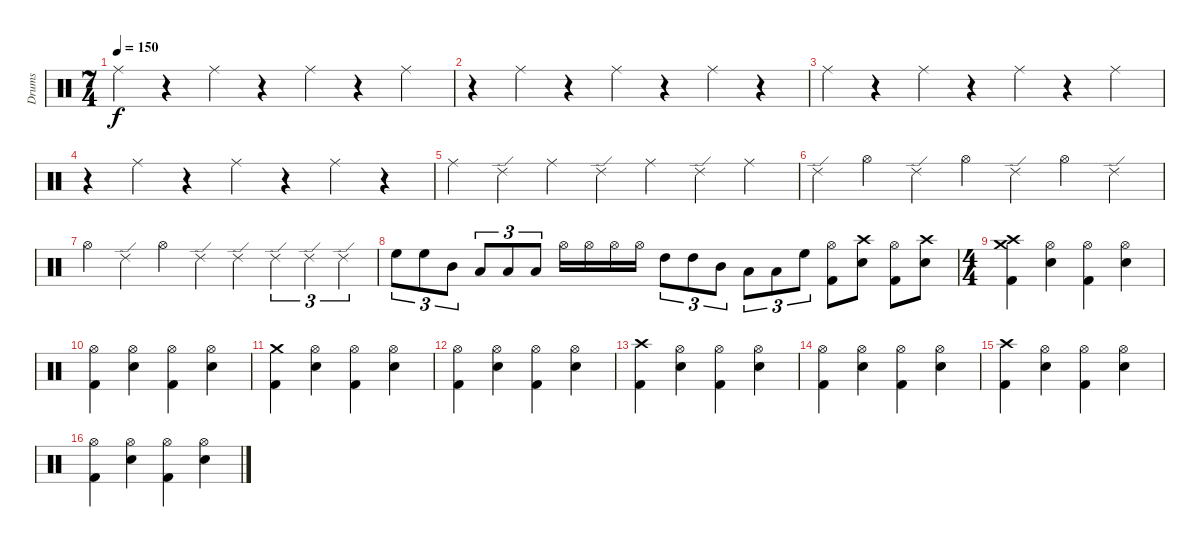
\track ("Drums" "Drums") {instrument percussion}
\staff {score}
\articulation defaults
\ts (7 4)
\tempo 150
\clef neutral
\ks c "Ride (middle)".4{dy f}
r.4 "Ride (middle)".4 r.4 "Ride (middle)".4 r.4 "Ride (middle)".4 |
r.4 "Ride (middle)".4 r.4 "Ride (middle)".4 r.4 "Ride (middle)".4 r.4 |
"Ride (middle)".4 r.4 "Ride (middle)".4 r.4 "Ride (middle)".4 r.4 "Ride (middle)".4 |
r.4 "Ride (middle)".4 r.4 "Ride (middle)".4 r.4 "Ride (middle)".4 r.4 |
"Ride (middle)".4 "Ride (edge) 2".4 "Ride (middle)".4 "Ride (edge) 2".4 "Ride (middle)".4 "Ride (edge) 2".4 "Ride (middle)".4 |
"Ride (edge) 2".4 "Hi-Hat (open)".4 "Ride (edge) 2".4 "Hi-Hat (open)".4 "Ride (edge) 2".4 "Hi-Hat (open)".4 "Ride (edge) 2".4 |
"Hi-Hat (open)".4 "Ride (edge) 2".4 "Hi-Hat (open)".4 "Ride (edge) 2".4 "Ride (edge) 2".4 "Ride (edge) 2".4{tu (3 2)} "Ride (edge) 2".4{tu (3 2)} "Ride (edge) 2".4{tu (3 2)} |
"High Floor Tom (hit)".8{tu (3 2)} "High Floor Tom (hit)".8{tu (3 2)} "Mid Tom (hit)".8{tu (3 2)} "Low Tom (hit)".8{tu (3 2)} "Low Floor Tom (hit)".8{tu (3 2)} "Low Floor Tom (hit)".8{tu (3 2)} "Hi-Hat (open)".16 "Hi-Hat (open)".16 "Hi-Hat (open)".16 "Hi-Hat (open)".16 "High Tom (hit)".8{tu (3 2)} "High Tom (hit)".8{tu (3 2)} "Mid Tom (hit)".8{tu (3 2)} "Low Tom (hit)".8{tu (3 2)} "Low Floor Tom (hit)".8{tu (3 2)} "High Floor Tom (hit)".8{tu (3 2)} ("Hi-Hat (open)" "Kick (hit) 2").8 ("Crash high (hit)" "Snare (hit) 2").8 ("Hi-Hat (open)" "Kick (hit) 2").8 ("Crash high (hit)" "Snare (hit) 2").8 |
\ts (4 4)
("Crash high (hit)" "Crash medium (hit)" "Kick (hit) 2").4 ("Hi-Hat (open)" "Snare (hit) 2").4 ("Hi-Hat (open)" "Kick (hit) 2").4 ("Hi-Hat (open)" "Snare (hit) 2").4 |
("Hi-Hat (open)" "Kick (hit) 2").4 ("Hi-Hat (open)" "Snare (hit) 2").4 ("Hi-Hat (open)" "Kick (hit) 2").4 ("Hi-Hat (open)" "Snare (hit) 2").4 |
("Crash medium (hit)" "Kick (hit) 2").4 ("Hi-Hat (open)" "Snare (hit) 2").4 ("Hi-Hat (open)" "Kick (hit) 2").4 ("Hi-Hat (open)" "Snare (hit) 2").4 |
("Hi-Hat (open)" "Kick (hit) 2").4 ("Hi-Hat (open)" "Snare (hit) 2").4 ("Hi-Hat (open)" "Kick (hit) 2").4 ("Hi-Hat (open)" "Snare (hit) 2").4 |
("Crash high (hit)" "Kick (hit) 2").4 ("Hi-Hat (open)" "Snare (hit) 2").4 ("Hi-Hat (open)" "Kick (hit) 2").4 ("Hi-Hat (open)" "Snare (hit) 2").4 |
("Hi-Hat (open)" "Kick (hit) 2").4 ("Hi-Hat (open)" "Snare (hit) 2").4 ("Hi-Hat (open)" "Kick (hit) 2").4 ("Hi-Hat (open)" "Snare (hit) 2").4 |
("Crash high (hit)" "Kick (hit) 2").4 ("Hi-Hat (open)" "Snare (hit) 2").4 ("Hi-Hat (open)" "Kick (hit) 2").4 ("Hi-Hat (open)" "Snare (hit) 2").4 |
("Hi-Hat (open)" "Kick (hit) 2").4 ("Hi-Hat (open)" "Snare (hit) 2").4 ("Hi-Hat (open)" "Kick (hit) 2").4 ("Hi-Hat (open)" "Snare (hit) 2").4
